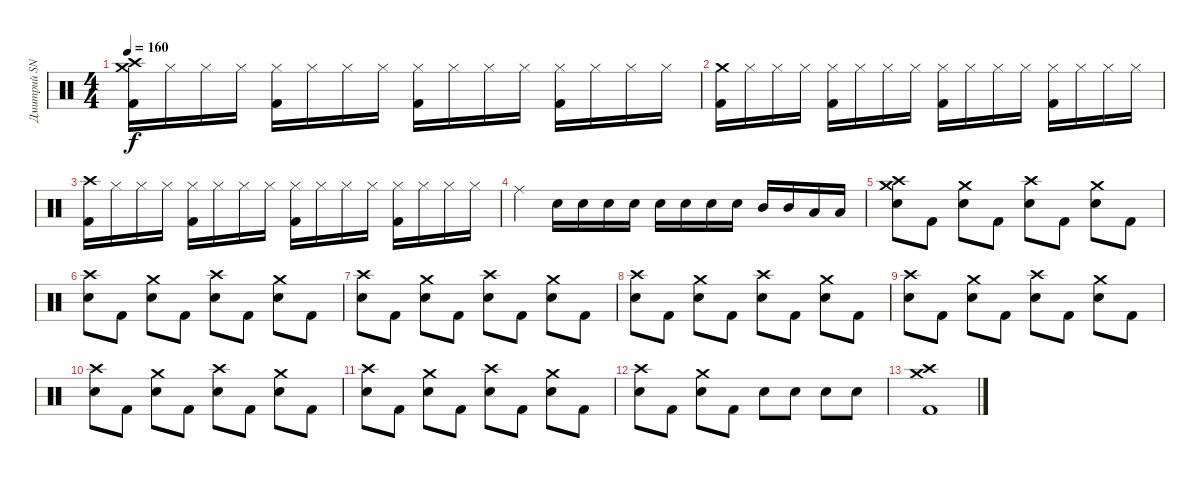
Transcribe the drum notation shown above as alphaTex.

\track ("Дмитрий SNAKE Хакимов" "Дмитрий SN") {instrument percussion}
\staff {score}
\articulation defaults
\ts (4 4)
\tempo 160
\clef neutral
\ks c
("Crash high (hit)" "Crash medium (hit)" "Kick (hit) 2").16{dy f} "Hi-Hat (closed)".16 "Hi-Hat (closed)".16 "Hi-Hat (closed)".16 ("Hi-Hat (closed)" "Kick (hit) 2").16 "Hi-Hat (closed)".16 "Hi-Hat (closed)".16 "Hi-Hat (closed)".16 ("Hi-Hat (closed)" "Kick (hit) 2").16 "Hi-Hat (closed)".16 "Hi-Hat (closed)".16 "Hi-Hat (closed)".16 ("Hi-Hat (closed)" "Kick (hit) 2").16 "Hi-Hat (closed)".16 "Hi-Hat (closed)".16 "Hi-Hat (closed)".16 |
("Crash medium (hit)" "Kick (hit) 2").16 "Hi-Hat (closed)".16 "Hi-Hat (closed)".16 "Hi-Hat (closed)".16 ("Hi-Hat (closed)" "Kick (hit) 2").16 "Hi-Hat (closed)".16 "Hi-Hat (closed)".16 "Hi-Hat (closed)".16 ("Hi-Hat (closed)" "Kick (hit) 2").16 "Hi-Hat (closed)".16 "Hi-Hat (closed)".16 "Hi-Hat (closed)".16 ("Hi-Hat (closed)" "Kick (hit) 2").16 "Hi-Hat (closed)".16 "Hi-Hat (closed)".16 "Hi-Hat (closed)".16 |
("Crash high (hit)" "Kick (hit) 2").16 "Hi-Hat (closed)".16 "Hi-Hat (closed)".16 "Hi-Hat (closed)".16 ("Hi-Hat (closed)" "Kick (hit) 2").16 "Hi-Hat (closed)".16 "Hi-Hat (closed)".16 "Hi-Hat (closed)".16 ("Hi-Hat (closed)" "Kick (hit) 2").16 "Hi-Hat (closed)".16 "Hi-Hat (closed)".16 "Hi-Hat (closed)".16 ("Hi-Hat (closed)" "Kick (hit) 2").16 "Hi-Hat (closed)".16 "Hi-Hat (closed)".16 "Hi-Hat (closed)".16 |
"Ride (middle)".4 "Snare (hit) 2".16 "Snare (hit) 2".16 "Snare (hit) 2".16 "Snare (hit) 2".16 "Snare (hit) 2".16 "Snare (hit) 2".16 "Snare (hit) 2".16 "Snare (hit) 2".16 "Mid Tom (hit)".16 "Mid Tom (hit)".16 "Low Tom (hit)".16 "Low Tom (hit)".16 |
("Crash high (hit)" "Crash medium (hit)" "Snare (hit) 2").8 "Kick (hit) 2".8 ("Crash medium (hit)" "Snare (hit) 2").8 "Kick (hit) 2".8 ("Crash high (hit)" "Snare (hit) 2").8 "Kick (hit) 2".8 ("Crash medium (hit)" "Snare (hit) 2").8 "Kick (hit) 2".8 |
("Crash high (hit)" "Snare (hit) 2").8 "Kick (hit) 2".8 ("Crash medium (hit)" "Snare (hit) 2").8 "Kick (hit) 2".8 ("Crash high (hit)" "Snare (hit) 2").8 "Kick (hit) 2".8 ("Crash medium (hit)" "Snare (hit) 2").8 "Kick (hit) 2".8 |
("Crash high (hit)" "Snare (hit) 2").8 "Kick (hit) 2".8 ("Crash medium (hit)" "Snare (hit) 2").8 "Kick (hit) 2".8 ("Crash high (hit)" "Snare (hit) 2").8 "Kick (hit) 2".8 ("Crash medium (hit)" "Snare (hit) 2").8 "Kick (hit) 2".8 |
("Crash high (hit)" "Snare (hit) 2").8 "Kick (hit) 2".8 ("Crash medium (hit)" "Snare (hit) 2").8 "Kick (hit) 2".8 ("Crash high (hit)" "Snare (hit) 2").8 "Kick (hit) 2".8 ("Crash medium (hit)" "Snare (hit) 2").8 "Kick (hit) 2".8 |
("Crash high (hit)" "Snare (hit) 2").8 "Kick (hit) 2".8 ("Crash medium (hit)" "Snare (hit) 2").8 "Kick (hit) 2".8 ("Crash high (hit)" "Snare (hit) 2").8 "Kick (hit) 2".8 ("Crash medium (hit)" "Snare (hit) 2").8 "Kick (hit) 2".8 |
("Crash high (hit)" "Snare (hit) 2").8 "Kick (hit) 2".8 ("Crash medium (hit)" "Snare (hit) 2").8 "Kick (hit) 2".8 ("Crash high (hit)" "Snare (hit) 2").8 "Kick (hit) 2".8 ("Crash medium (hit)" "Snare (hit) 2").8 "Kick (hit) 2".8 |
("Crash high (hit)" "Snare (hit) 2").8 "Kick (hit) 2".8 ("Crash medium (hit)" "Snare (hit) 2").8 "Kick (hit) 2".8 ("Crash high (hit)" "Snare (hit) 2").8 "Kick (hit) 2".8 ("Crash medium (hit)" "Snare (hit) 2").8 "Kick (hit) 2".8 |
("Crash high (hit)" "Snare (hit) 2").8 "Kick (hit) 2".8 ("Crash medium (hit)" "Snare (hit) 2").8 "Kick (hit) 2".8 "Snare (hit) 2".8 "Snare (hit) 2".8 "Snare (hit) 2".8 "Snare (hit) 2".8 |
("Crash high (hit)" "Crash medium (hit)" "Kick (hit) 2").1
